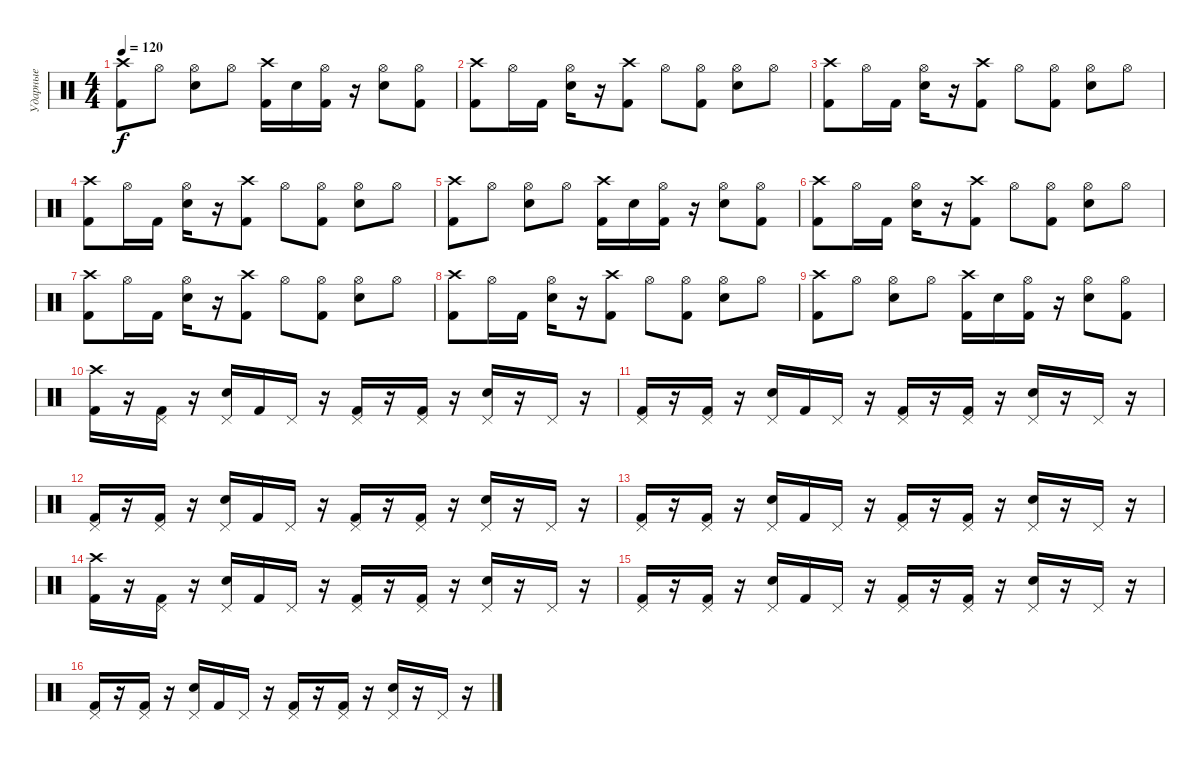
\track ("Ударные" "Ударные") {instrument percussion}
\staff {score}
\articulation defaults
\ts (4 4)
\tempo 120
\clef neutral
\ks c
("Crash high (hit)" "Kick (hit) 2").8{dy f} "Hi-Hat (open)".8 ("Hi-Hat (open)" "Electric Snare (hit)").8 "Hi-Hat (open)".8 ("Crash high (hit)" "Kick (hit) 2").16 "Electric Snare (hit)".16 ("Hi-Hat (open)" "Kick (hit) 2").16 r.16 ("Hi-Hat (open)" "Electric Snare (hit)").8 ("Hi-Hat (open)" "Kick (hit) 2").8 |
("Crash high (hit)" "Kick (hit) 2").8 "Hi-Hat (open)".16 "Kick (hit) 2".16 ("Hi-Hat (open)" "Electric Snare (hit)").16 r.16 ("Crash high (hit)" "Kick (hit) 2").8 "Hi-Hat (open)".8 ("Hi-Hat (open)" "Kick (hit) 2").8 ("Hi-Hat (open)" "Electric Snare (hit)").8 "Hi-Hat (open)".8 |
("Crash high (hit)" "Kick (hit) 2").8 "Hi-Hat (open)".16 "Kick (hit) 2".16 ("Hi-Hat (open)" "Electric Snare (hit)").16 r.16 ("Crash high (hit)" "Kick (hit) 2").8 "Hi-Hat (open)".8 ("Hi-Hat (open)" "Kick (hit) 2").8 ("Hi-Hat (open)" "Electric Snare (hit)").8 "Hi-Hat (open)".8 |
("Crash high (hit)" "Kick (hit) 2").8 "Hi-Hat (open)".16 "Kick (hit) 2".16 ("Hi-Hat (open)" "Electric Snare (hit)").16 r.16 ("Crash high (hit)" "Kick (hit) 2").8 "Hi-Hat (open)".8 ("Hi-Hat (open)" "Kick (hit) 2").8 ("Hi-Hat (open)" "Electric Snare (hit)").8 "Hi-Hat (open)".8 |
("Crash high (hit)" "Kick (hit) 2").8 "Hi-Hat (open)".8 ("Hi-Hat (open)" "Electric Snare (hit)").8 "Hi-Hat (open)".8 ("Crash high (hit)" "Kick (hit) 2").16 "Electric Snare (hit)".16 ("Hi-Hat (open)" "Kick (hit) 2").16 r.16 ("Hi-Hat (open)" "Electric Snare (hit)").8 ("Hi-Hat (open)" "Kick (hit) 2").8 |
("Crash high (hit)" "Kick (hit) 2").8 "Hi-Hat (open)".16 "Kick (hit) 2".16 ("Hi-Hat (open)" "Electric Snare (hit)").16 r.16 ("Crash high (hit)" "Kick (hit) 2").8 "Hi-Hat (open)".8 ("Hi-Hat (open)" "Kick (hit) 2").8 ("Hi-Hat (open)" "Electric Snare (hit)").8 "Hi-Hat (open)".8 |
("Crash high (hit)" "Kick (hit) 2").8 "Hi-Hat (open)".16 "Kick (hit) 2".16 ("Hi-Hat (open)" "Electric Snare (hit)").16 r.16 ("Crash high (hit)" "Kick (hit) 2").8 "Hi-Hat (open)".8 ("Hi-Hat (open)" "Kick (hit) 2").8 ("Hi-Hat (open)" "Electric Snare (hit)").8 "Hi-Hat (open)".8 |
("Crash high (hit)" "Kick (hit) 2").8 "Hi-Hat (open)".16 "Kick (hit) 2".16 ("Hi-Hat (open)" "Electric Snare (hit)").16 r.16 ("Crash high (hit)" "Kick (hit) 2").8 "Hi-Hat (open)".8 ("Hi-Hat (open)" "Kick (hit) 2").8 ("Hi-Hat (open)" "Electric Snare (hit)").8 "Hi-Hat (open)".8 |
("Crash high (hit)" "Kick (hit) 2").8 "Hi-Hat (open)".8 ("Hi-Hat (open)" "Electric Snare (hit)").8 "Hi-Hat (open)".8 ("Crash high (hit)" "Kick (hit) 2").16 "Electric Snare (hit)".16 ("Hi-Hat (open)" "Kick (hit) 2").16 r.16 ("Hi-Hat (open)" "Electric Snare (hit)").8 ("Hi-Hat (open)" "Kick (hit) 2").8 |
("Crash high (hit)" "Kick (hit) 2").16 r.16 ("Pedal Hi-Hat (hit)" "Kick (hit) 2").16 r.16 ("Pedal Hi-Hat (hit)" "Electric Snare (hit)").16 "Kick (hit) 2".16 "Pedal Hi-Hat (hit)".16 r.16 ("Pedal Hi-Hat (hit)" "Kick (hit) 2").16 r.16 ("Pedal Hi-Hat (hit)" "Kick (hit) 2").16 r.16 ("Pedal Hi-Hat (hit)" "Electric Snare (hit)").16 r.16 "Pedal Hi-Hat (hit)".16 r.16 |
("Pedal Hi-Hat (hit)" "Kick (hit) 2").16 r.16 ("Pedal Hi-Hat (hit)" "Kick (hit) 2").16 r.16 ("Pedal Hi-Hat (hit)" "Electric Snare (hit)").16 "Kick (hit) 2".16 "Pedal Hi-Hat (hit)".16 r.16 ("Pedal Hi-Hat (hit)" "Kick (hit) 2").16 r.16 ("Pedal Hi-Hat (hit)" "Kick (hit) 2").16 r.16 ("Pedal Hi-Hat (hit)" "Electric Snare (hit)").16 r.16 "Pedal Hi-Hat (hit)".16 r.16 |
("Pedal Hi-Hat (hit)" "Kick (hit) 2").16 r.16 ("Pedal Hi-Hat (hit)" "Kick (hit) 2").16 r.16 ("Pedal Hi-Hat (hit)" "Electric Snare (hit)").16 "Kick (hit) 2".16 "Pedal Hi-Hat (hit)".16 r.16 ("Pedal Hi-Hat (hit)" "Kick (hit) 2").16 r.16 ("Pedal Hi-Hat (hit)" "Kick (hit) 2").16 r.16 ("Pedal Hi-Hat (hit)" "Electric Snare (hit)").16 r.16 "Pedal Hi-Hat (hit)".16 r.16 |
("Pedal Hi-Hat (hit)" "Kick (hit) 2").16 r.16 ("Pedal Hi-Hat (hit)" "Kick (hit) 2").16 r.16 ("Pedal Hi-Hat (hit)" "Electric Snare (hit)").16 "Kick (hit) 2".16 "Pedal Hi-Hat (hit)".16 r.16 ("Pedal Hi-Hat (hit)" "Kick (hit) 2").16 r.16 ("Pedal Hi-Hat (hit)" "Kick (hit) 2").16 r.16 ("Pedal Hi-Hat (hit)" "Electric Snare (hit)").16 r.16 "Pedal Hi-Hat (hit)".16 r.16 |
("Crash high (hit)" "Kick (hit) 2").16 r.16 ("Pedal Hi-Hat (hit)" "Kick (hit) 2").16 r.16 ("Pedal Hi-Hat (hit)" "Electric Snare (hit)").16 "Kick (hit) 2".16 "Pedal Hi-Hat (hit)".16 r.16 ("Pedal Hi-Hat (hit)" "Kick (hit) 2").16 r.16 ("Pedal Hi-Hat (hit)" "Kick (hit) 2").16 r.16 ("Pedal Hi-Hat (hit)" "Electric Snare (hit)").16 r.16 "Pedal Hi-Hat (hit)".16 r.16 |
("Pedal Hi-Hat (hit)" "Kick (hit) 2").16 r.16 ("Pedal Hi-Hat (hit)" "Kick (hit) 2").16 r.16 ("Pedal Hi-Hat (hit)" "Electric Snare (hit)").16 "Kick (hit) 2".16 "Pedal Hi-Hat (hit)".16 r.16 ("Pedal Hi-Hat (hit)" "Kick (hit) 2").16 r.16 ("Pedal Hi-Hat (hit)" "Kick (hit) 2").16 r.16 ("Pedal Hi-Hat (hit)" "Electric Snare (hit)").16 r.16 "Pedal Hi-Hat (hit)".16 r.16 |
("Pedal Hi-Hat (hit)" "Kick (hit) 2").16 r.16 ("Pedal Hi-Hat (hit)" "Kick (hit) 2").16 r.16 ("Pedal Hi-Hat (hit)" "Electric Snare (hit)").16 "Kick (hit) 2".16 "Pedal Hi-Hat (hit)".16 r.16 ("Pedal Hi-Hat (hit)" "Kick (hit) 2").16 r.16 ("Pedal Hi-Hat (hit)" "Kick (hit) 2").16 r.16 ("Pedal Hi-Hat (hit)" "Electric Snare (hit)").16 r.16 "Pedal Hi-Hat (hit)".16 r.16
